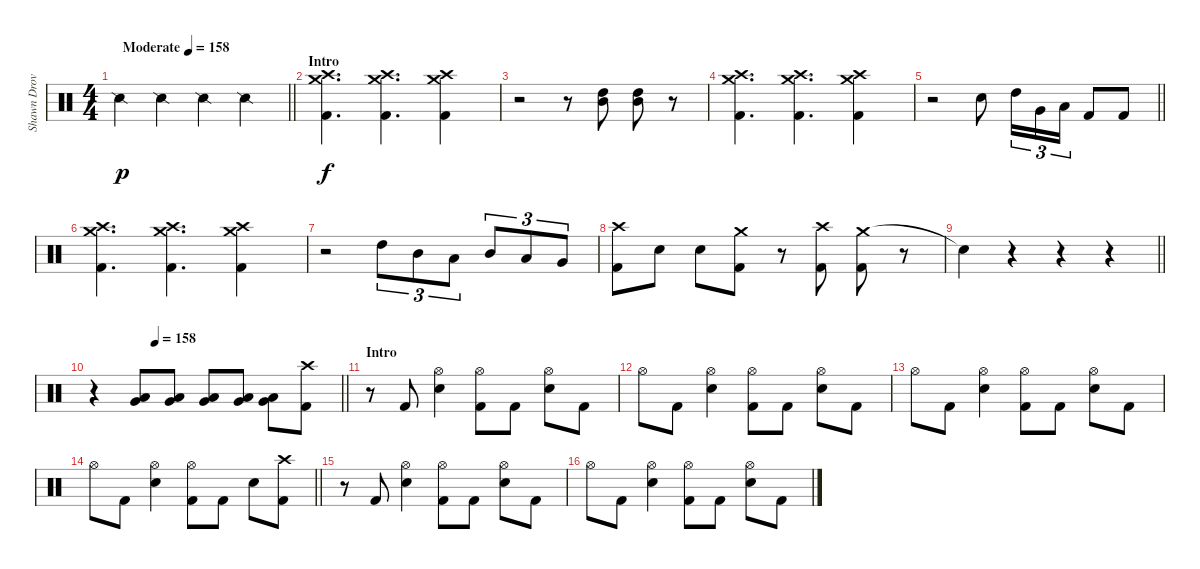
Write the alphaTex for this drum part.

\track ("Shawn Drover" "Shawn Drov") {instrument percussion}
\staff
\articulation defaults
\ts (4 4)
\tempo (158 "Moderate")
\tempo 131
\tempo (158 "Moderate")
\clef neutral
\barLineRight lightlight
\ks c "Snare (side stick) 2".4{dy p} "Snare (side stick) 2".4 "Snare (side stick) 2".4 "Snare (side stick) 2".4
|
\section ("" "Intro")
("Crash high (hit)" "Crash medium (hit)" "Kick (hit) 2").4{d dy f} ("Crash high (hit)" "Kick (hit) 2" "Crash medium (hit)").4{d} ("Crash high (hit)" "Crash medium (hit)" "Kick (hit) 2").4 |
r.2 r.8 ("High Tom (hit)" "Mid Tom (hit)").8 ("High Tom (hit)" "Mid Tom (hit)").8 r.8 |
("Crash high (hit)" "Crash medium (hit)" "Kick (hit) 2").4{d} ("Crash high (hit)" "Kick (hit) 2" "Crash medium (hit)").4{d} ("Crash high (hit)" "Crash medium (hit)" "Kick (hit) 2").4 |
\barLineRight lightlight
r.2 "Snare (hit) 2".8 "High Tom (hit)".16{tu (3 2)} "Very Low Tom (hit)".16{tu (3 2)} "Low Floor Tom (hit)".16{tu (3 2)} "Kick (hit) 2".8 "Kick (hit) 2".8 |
("Crash high (hit)" "Crash medium (hit)" "Kick (hit) 2").4{d} ("Crash high (hit)" "Kick (hit) 2" "Crash medium (hit)").4{d} ("Crash high (hit)" "Crash medium (hit)" "Kick (hit) 2").4 |
r.2 "High Tom (hit)".8{tu (3 2)} "Mid Tom (hit)".8{tu (3 2)} "Low Tom (hit)".8{tu (3 2)} "Mid Tom (hit)".8{tu (3 2)} "Low Tom (hit)".8{tu (3 2)} "Very Low Tom (hit)".8{tu (3 2)} |
("Crash high (hit)" "Kick (hit) 2").8 "Snare (hit) 2".8 "Snare (hit) 2".8 ("Crash medium (hit)" "Kick (hit) 2").8 r.8 ("Crash high (hit)" "Kick (hit) 2").8 ("Crash medium (hit)" "Kick (hit) 2").8 r.8 |
\barLineRight lightlight "Snare (hit)"{t}.4
r.4 r.4 r.4 |
\tempo (158 0.25)
\barLineRight lightlight
r.4 ("Low Floor Tom (hit)" "Very Low Tom (hit)").8 ("Low Floor Tom (hit)" "Very Low Tom (hit)").8 ("Low Floor Tom (hit)" "Very Low Tom (hit)").8 ("Low Floor Tom (hit)" "Very Low Tom (hit)").8 ("Low Floor Tom (hit)" "Very Low Tom (hit)").8 ("Crash high (hit)" "Kick (hit) 2").8 |
\section ("" "Intro")
r.8 "Kick (hit) 2".8 ("Hi-Hat (open)" "Snare (hit) 2").4 ("Hi-Hat (open)" "Kick (hit) 2").8 "Kick (hit) 2".8 ("Hi-Hat (open)" "Snare (hit) 2").8 "Kick (hit) 2".8 |
"Hi-Hat (open)".8 "Kick (hit) 2".8 ("Hi-Hat (open)" "Snare (hit) 2").4 ("Hi-Hat (open)" "Kick (hit) 2").8 "Kick (hit) 2".8 ("Hi-Hat (open)" "Snare (hit) 2").8 "Kick (hit) 2".8 |
"Hi-Hat (open)".8 "Kick (hit) 2".8 ("Hi-Hat (open)" "Snare (hit) 2").4 ("Hi-Hat (open)" "Kick (hit) 2").8 "Kick (hit) 2".8 ("Hi-Hat (open)" "Snare (hit) 2").8 "Kick (hit) 2".8 |
\barLineRight lightlight "Hi-Hat (open)".8 "Kick (hit) 2".8
("Hi-Hat (open)" "Snare (hit) 2").4 ("Hi-Hat (open)" "Kick (hit) 2").8 "Kick (hit) 2".8 "Snare (hit) 2".8 ("Crash high (hit)" "Kick (hit) 2").8 |
r.8 "Kick (hit) 2".8 ("Hi-Hat (open)" "Snare (hit) 2").4 ("Hi-Hat (open)" "Kick (hit) 2").8 "Kick (hit) 2".8 ("Hi-Hat (open)" "Snare (hit) 2").8 "Kick (hit) 2".8 |
"Hi-Hat (open)".8 "Kick (hit) 2".8 ("Hi-Hat (open)" "Snare (hit) 2").4 ("Hi-Hat (open)" "Kick (hit) 2").8 "Kick (hit) 2".8 ("Hi-Hat (open)" "Snare (hit) 2").8 "Kick (hit) 2".8
